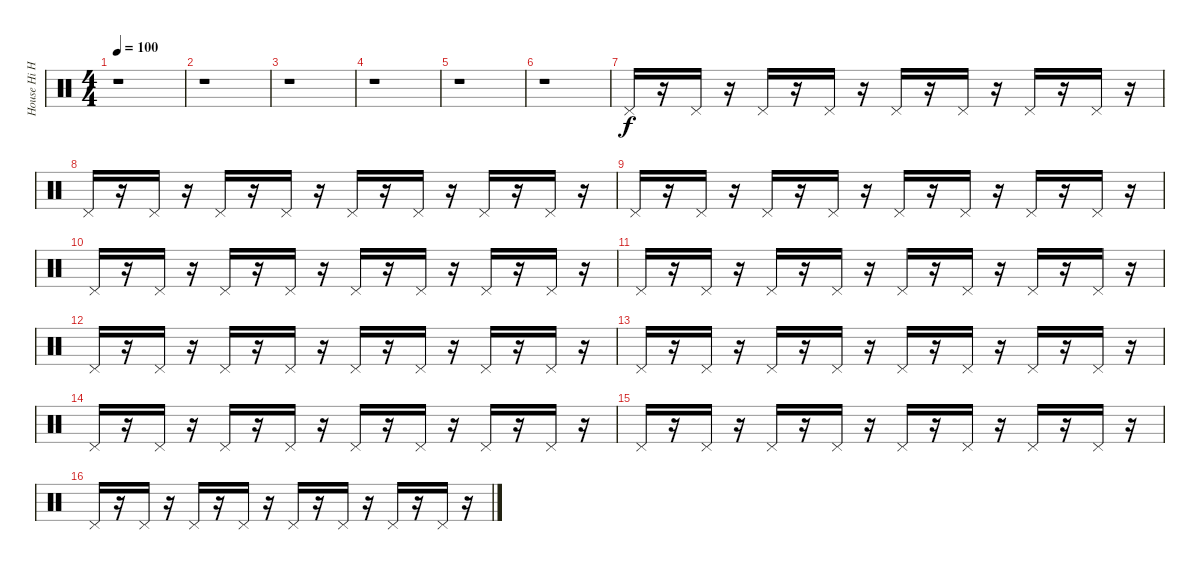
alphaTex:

\track ("House Hi Hat" "House Hi H") {instrument percussion}
\staff {score}
\articulation defaults
\ts (4 4)
\tempo 100
\clef neutral
\ks c
r.1{dy f} |
r.1 |
r.1 |
r.1 |
r.1 |
r.1 |
"Pedal Hi-Hat (hit)".16 r.16 "Pedal Hi-Hat (hit)".16 r.16 "Pedal Hi-Hat (hit)".16 r.16 "Pedal Hi-Hat (hit)".16 r.16 "Pedal Hi-Hat (hit)".16 r.16 "Pedal Hi-Hat (hit)".16 r.16 "Pedal Hi-Hat (hit)".16 r.16 "Pedal Hi-Hat (hit)".16 r.16 |
"Pedal Hi-Hat (hit)".16 r.16 "Pedal Hi-Hat (hit)".16 r.16 "Pedal Hi-Hat (hit)".16 r.16 "Pedal Hi-Hat (hit)".16 r.16 "Pedal Hi-Hat (hit)".16 r.16 "Pedal Hi-Hat (hit)".16 r.16 "Pedal Hi-Hat (hit)".16 r.16 "Pedal Hi-Hat (hit)".16 r.16 |
"Pedal Hi-Hat (hit)".16 r.16 "Pedal Hi-Hat (hit)".16 r.16 "Pedal Hi-Hat (hit)".16 r.16 "Pedal Hi-Hat (hit)".16 r.16 "Pedal Hi-Hat (hit)".16 r.16 "Pedal Hi-Hat (hit)".16 r.16 "Pedal Hi-Hat (hit)".16 r.16 "Pedal Hi-Hat (hit)".16 r.16 |
"Pedal Hi-Hat (hit)".16 r.16 "Pedal Hi-Hat (hit)".16 r.16 "Pedal Hi-Hat (hit)".16 r.16 "Pedal Hi-Hat (hit)".16 r.16 "Pedal Hi-Hat (hit)".16 r.16 "Pedal Hi-Hat (hit)".16 r.16 "Pedal Hi-Hat (hit)".16 r.16 "Pedal Hi-Hat (hit)".16 r.16 |
"Pedal Hi-Hat (hit)".16 r.16 "Pedal Hi-Hat (hit)".16 r.16 "Pedal Hi-Hat (hit)".16 r.16 "Pedal Hi-Hat (hit)".16 r.16 "Pedal Hi-Hat (hit)".16 r.16 "Pedal Hi-Hat (hit)".16 r.16 "Pedal Hi-Hat (hit)".16 r.16 "Pedal Hi-Hat (hit)".16 r.16 |
"Pedal Hi-Hat (hit)".16 r.16 "Pedal Hi-Hat (hit)".16 r.16 "Pedal Hi-Hat (hit)".16 r.16 "Pedal Hi-Hat (hit)".16 r.16 "Pedal Hi-Hat (hit)".16 r.16 "Pedal Hi-Hat (hit)".16 r.16 "Pedal Hi-Hat (hit)".16 r.16 "Pedal Hi-Hat (hit)".16 r.16 |
"Pedal Hi-Hat (hit)".16 r.16 "Pedal Hi-Hat (hit)".16 r.16 "Pedal Hi-Hat (hit)".16 r.16 "Pedal Hi-Hat (hit)".16 r.16 "Pedal Hi-Hat (hit)".16 r.16 "Pedal Hi-Hat (hit)".16 r.16 "Pedal Hi-Hat (hit)".16 r.16 "Pedal Hi-Hat (hit)".16 r.16 |
"Pedal Hi-Hat (hit)".16 r.16 "Pedal Hi-Hat (hit)".16 r.16 "Pedal Hi-Hat (hit)".16 r.16 "Pedal Hi-Hat (hit)".16 r.16 "Pedal Hi-Hat (hit)".16 r.16 "Pedal Hi-Hat (hit)".16 r.16 "Pedal Hi-Hat (hit)".16 r.16 "Pedal Hi-Hat (hit)".16 r.16 |
"Pedal Hi-Hat (hit)".16 r.16 "Pedal Hi-Hat (hit)".16 r.16 "Pedal Hi-Hat (hit)".16 r.16 "Pedal Hi-Hat (hit)".16 r.16 "Pedal Hi-Hat (hit)".16 r.16 "Pedal Hi-Hat (hit)".16 r.16 "Pedal Hi-Hat (hit)".16 r.16 "Pedal Hi-Hat (hit)".16 r.16 |
"Pedal Hi-Hat (hit)".16 r.16 "Pedal Hi-Hat (hit)".16 r.16 "Pedal Hi-Hat (hit)".16 r.16 "Pedal Hi-Hat (hit)".16 r.16 "Pedal Hi-Hat (hit)".16 r.16 "Pedal Hi-Hat (hit)".16 r.16 "Pedal Hi-Hat (hit)".16 r.16 "Pedal Hi-Hat (hit)".16 r.16
